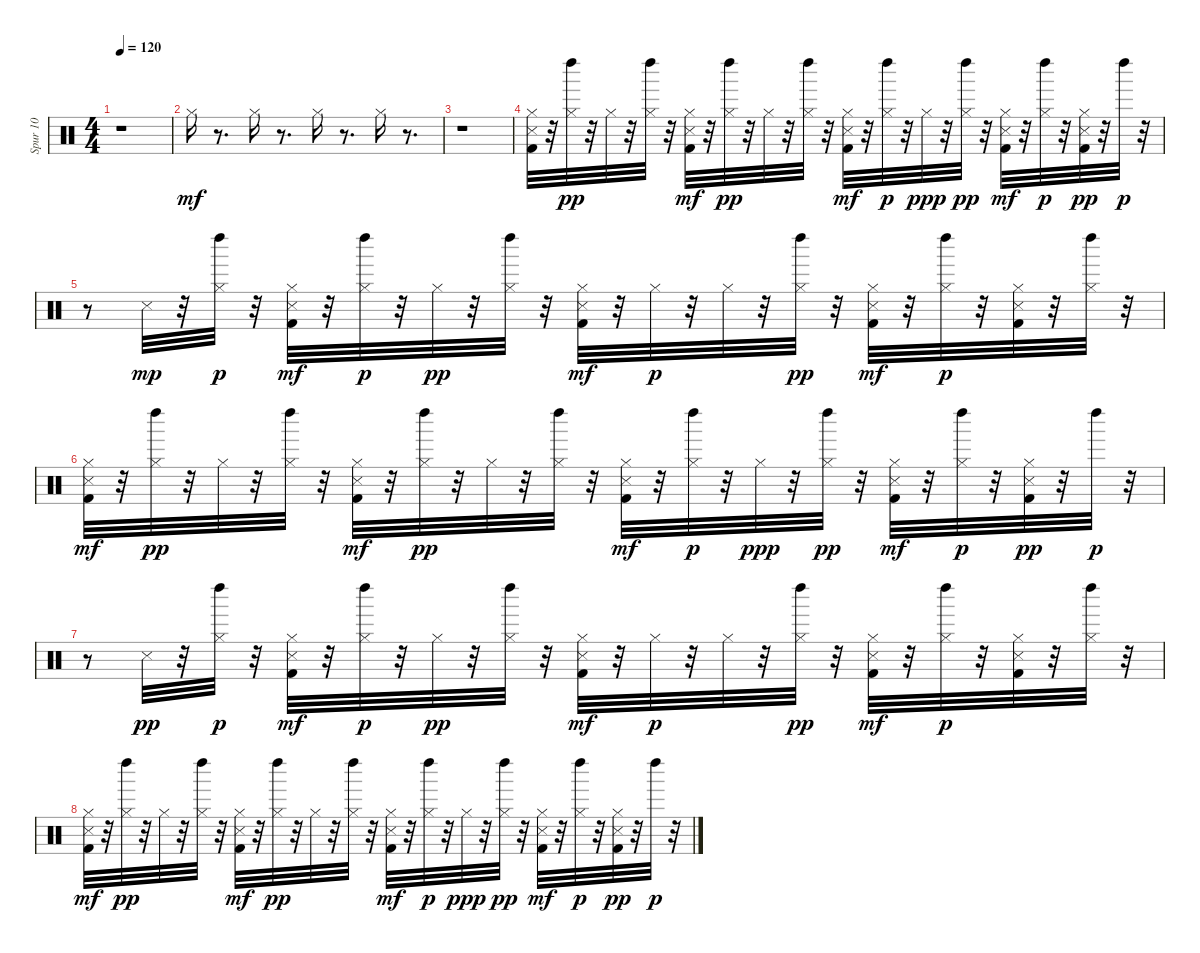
\track ("Spur 10" "Spur 10") {instrument percussion}
\staff {score}
\articulation defaults
\ts (4 4)
\tempo 120
\clef neutral
\ks c
r.1{dy mf} |
"Hi-Hat (closed)".16 r.8{d} "Hi-Hat (closed)".16 r.8{d} "Hi-Hat (closed)".16 r.8{d} "Hi-Hat (closed)".16 r.8{d} |
r.1 |
("Kick (hit) 2" "Snare (side stick) 3" "Hi-Hat (closed)").32 r.32 ("Hi-Hat (closed)" "Left Maraca (hit)").32{dy pp} r.32 "Hi-Hat (closed)".32 r.32 ("Hi-Hat (closed)" "Left Maraca (hit)").32 r.32 ("Kick (hit) 2" "Snare (side stick) 3" "Hi-Hat (closed)").32{dy mf} r.32 ("Hi-Hat (closed)" "Left Maraca (hit)").32{dy pp} r.32 "Hi-Hat (closed)".32 r.32 ("Hi-Hat (closed)" "Left Maraca (hit)").32 r.32 ("Kick (hit) 2" "Snare (side stick) 3" "Hi-Hat (closed)").32{dy mf} r.32 ("Hi-Hat (closed)" "Left Maraca (hit)").32{dy p} r.32 "Hi-Hat (closed)".32{dy ppp} r.32 ("Hi-Hat (closed)" "Left Maraca (hit)").32{dy pp} r.32 ("Kick (hit) 2" "Snare (side stick) 3" "Hi-Hat (closed)").32{dy mf} r.32 ("Hi-Hat (closed)" "Left Maraca (hit)").32{dy p} r.32 ("Kick (hit) 2" "Snare (side stick) 3" "Hi-Hat (closed)").32{dy pp} r.32 "Left Maraca (hit)".32{dy p} r.32 |
r.8 "Snare (side stick) 3".32{dy mp} r.32 ("Hi-Hat (closed)" "Left Maraca (hit)").32{dy p} r.32 ("Kick (hit) 2" "Snare (side stick) 3" "Hi-Hat (closed)").32{dy mf} r.32 ("Hi-Hat (closed)" "Left Maraca (hit)").32{dy p} r.32 "Hi-Hat (closed)".32{dy pp} r.32 ("Hi-Hat (closed)" "Left Maraca (hit)").32 r.32 ("Kick (hit) 2" "Snare (side stick) 3" "Hi-Hat (closed)").32{dy mf} r.32 "Hi-Hat (closed)".32{dy p} r.32 "Hi-Hat (closed)".32 r.32 ("Hi-Hat (closed)" "Left Maraca (hit)").32{dy pp} r.32 ("Kick (hit) 2" "Snare (side stick) 3" "Hi-Hat (closed)").32{dy mf} r.32 ("Hi-Hat (closed)" "Left Maraca (hit)").32{dy p} r.32 ("Kick (hit) 2" "Snare (side stick) 3" "Hi-Hat (closed)").32 r.32 ("Hi-Hat (closed)" "Left Maraca (hit)").32 r.32 |
("Kick (hit) 2" "Snare (side stick) 3" "Hi-Hat (closed)").32{dy mf} r.32 ("Hi-Hat (closed)" "Left Maraca (hit)").32{dy pp} r.32 "Hi-Hat (closed)".32 r.32 ("Hi-Hat (closed)" "Left Maraca (hit)").32 r.32 ("Kick (hit) 2" "Snare (side stick) 3" "Hi-Hat (closed)").32{dy mf} r.32 ("Hi-Hat (closed)" "Left Maraca (hit)").32{dy pp} r.32 "Hi-Hat (closed)".32 r.32 ("Hi-Hat (closed)" "Left Maraca (hit)").32 r.32 ("Kick (hit) 2" "Snare (side stick) 3" "Hi-Hat (closed)").32{dy mf} r.32 ("Hi-Hat (closed)" "Left Maraca (hit)").32{dy p} r.32 "Hi-Hat (closed)".32{dy ppp} r.32 ("Hi-Hat (closed)" "Left Maraca (hit)").32{dy pp} r.32 ("Kick (hit) 2" "Snare (side stick) 3" "Hi-Hat (closed)").32{dy mf} r.32 ("Hi-Hat (closed)" "Left Maraca (hit)").32{dy p} r.32 ("Kick (hit) 2" "Snare (side stick) 3" "Hi-Hat (closed)").32{dy pp} r.32 "Left Maraca (hit)".32{dy p} r.32 |
r.8 "Snare (side stick) 3".32{dy pp} r.32 ("Hi-Hat (closed)" "Left Maraca (hit)").32{dy p} r.32 ("Kick (hit) 2" "Snare (side stick) 3" "Hi-Hat (closed)").32{dy mf} r.32 ("Hi-Hat (closed)" "Left Maraca (hit)").32{dy p} r.32 "Hi-Hat (closed)".32{dy pp} r.32 ("Hi-Hat (closed)" "Left Maraca (hit)").32 r.32 ("Kick (hit) 2" "Snare (side stick) 3" "Hi-Hat (closed)").32{dy mf} r.32 "Hi-Hat (closed)".32{dy p} r.32 "Hi-Hat (closed)".32 r.32 ("Hi-Hat (closed)" "Left Maraca (hit)").32{dy pp} r.32 ("Kick (hit) 2" "Snare (side stick) 3" "Hi-Hat (closed)").32{dy mf} r.32 ("Hi-Hat (closed)" "Left Maraca (hit)").32{dy p} r.32 ("Kick (hit) 2" "Snare (side stick) 3" "Hi-Hat (closed)").32 r.32 ("Hi-Hat (closed)" "Left Maraca (hit)").32 r.32 |
("Kick (hit) 2" "Snare (side stick) 3" "Hi-Hat (closed)").32{dy mf} r.32 ("Hi-Hat (closed)" "Left Maraca (hit)").32{dy pp} r.32 "Hi-Hat (closed)".32 r.32 ("Hi-Hat (closed)" "Left Maraca (hit)").32 r.32 ("Kick (hit) 2" "Snare (side stick) 3" "Hi-Hat (closed)").32{dy mf} r.32 ("Hi-Hat (closed)" "Left Maraca (hit)").32{dy pp} r.32 "Hi-Hat (closed)".32 r.32 ("Hi-Hat (closed)" "Left Maraca (hit)").32 r.32 ("Kick (hit) 2" "Snare (side stick) 3" "Hi-Hat (closed)").32{dy mf} r.32 ("Hi-Hat (closed)" "Left Maraca (hit)").32{dy p} r.32 "Hi-Hat (closed)".32{dy ppp} r.32 ("Hi-Hat (closed)" "Left Maraca (hit)").32{dy pp} r.32 ("Kick (hit) 2" "Snare (side stick) 3" "Hi-Hat (closed)").32{dy mf} r.32 ("Hi-Hat (closed)" "Left Maraca (hit)").32{dy p} r.32 ("Kick (hit) 2" "Snare (side stick) 3" "Hi-Hat (closed)").32{dy pp} r.32 "Left Maraca (hit)".32{dy p} r.32
